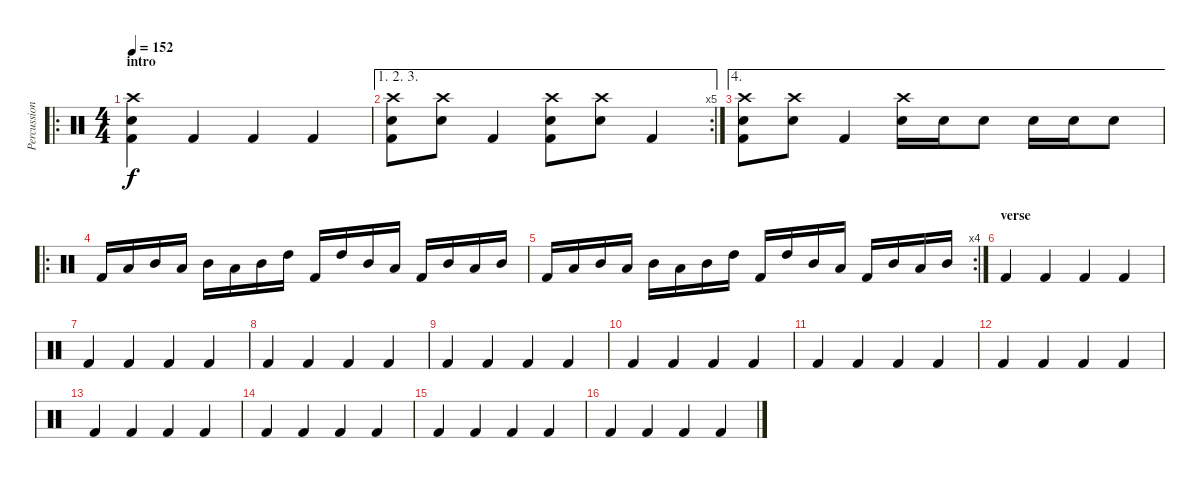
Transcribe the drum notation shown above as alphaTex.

\track ("Percussion" "Percussion") {instrument percussion}
\staff {score}
\articulation defaults
\ro
\ts (4 4)
\section ("" "intro")
\tempo 152
\clef neutral
\ks c
("Crash high (hit)" "Electric Snare (hit)" "Kick (hit) 2").4{dy f} "Kick (hit) 2".4 "Kick (hit) 2".4 "Kick (hit) 2".4 |
\ae (1 2 3)
\rc 5
("Crash high (hit)" "Electric Snare (hit)" "Kick (hit) 2").8 ("Crash high (hit)" "Electric Snare (hit)").8 "Kick (hit) 2".4 ("Crash high (hit)" "Electric Snare (hit)" "Kick (hit) 2").8 ("Crash high (hit)" "Electric Snare (hit)").8 "Kick (hit) 2".4 |
\ae 4
("Crash high (hit)" "Electric Snare (hit)" "Kick (hit) 2").8 ("Crash high (hit)" "Electric Snare (hit)").8 "Kick (hit) 2".4 ("Crash high (hit)" "Electric Snare (hit)").16 "Electric Snare (hit)".16 "Electric Snare (hit)".8 "Electric Snare (hit)".16 "Electric Snare (hit)".16 "Electric Snare (hit)".8 |
\ro "Kick (hit) 2".16 "Low Tom (hit)".16 "Mid Tom (hit)".16 "Low Tom (hit)".16 "Mid Tom (hit)".16 "Low Tom (hit)".16 "Mid Tom (hit)".16 "High Tom (hit)".16 "Kick (hit) 2".16 "High Tom (hit)".16 "Mid Tom (hit)".16 "Low Tom (hit)".16 "Kick (hit) 2".16 "Mid Tom (hit)".16 "Low Tom (hit)".16 "Mid Tom (hit)".16
|
\rc 4 "Kick (hit) 2".16 "Low Tom (hit)".16 "Mid Tom (hit)".16 "Low Tom (hit)".16 "Mid Tom (hit)".16 "Low Tom (hit)".16 "Mid Tom (hit)".16 "High Tom (hit)".16 "Kick (hit) 2".16 "High Tom (hit)".16 "Mid Tom (hit)".16 "Low Tom (hit)".16 "Kick (hit) 2".16 "Mid Tom (hit)".16 "Low Tom (hit)".16 "Mid Tom (hit)".16
|
\section ("" "verse")
"Kick (hit) 2".4 "Kick (hit) 2".4 "Kick (hit) 2".4 "Kick (hit) 2".4 |
"Kick (hit) 2".4 "Kick (hit) 2".4 "Kick (hit) 2".4 "Kick (hit) 2".4 |
"Kick (hit) 2".4 "Kick (hit) 2".4 "Kick (hit) 2".4 "Kick (hit) 2".4 |
"Kick (hit) 2".4 "Kick (hit) 2".4 "Kick (hit) 2".4 "Kick (hit) 2".4 |
"Kick (hit) 2".4 "Kick (hit) 2".4 "Kick (hit) 2".4 "Kick (hit) 2".4 |
"Kick (hit) 2".4 "Kick (hit) 2".4 "Kick (hit) 2".4 "Kick (hit) 2".4 |
"Kick (hit) 2".4 "Kick (hit) 2".4 "Kick (hit) 2".4 "Kick (hit) 2".4 |
"Kick (hit) 2".4 "Kick (hit) 2".4 "Kick (hit) 2".4 "Kick (hit) 2".4 |
"Kick (hit) 2".4 "Kick (hit) 2".4 "Kick (hit) 2".4 "Kick (hit) 2".4 |
"Kick (hit) 2".4 "Kick (hit) 2".4 "Kick (hit) 2".4 "Kick (hit) 2".4 |
"Kick (hit) 2".4 "Kick (hit) 2".4 "Kick (hit) 2".4 "Kick (hit) 2".4
